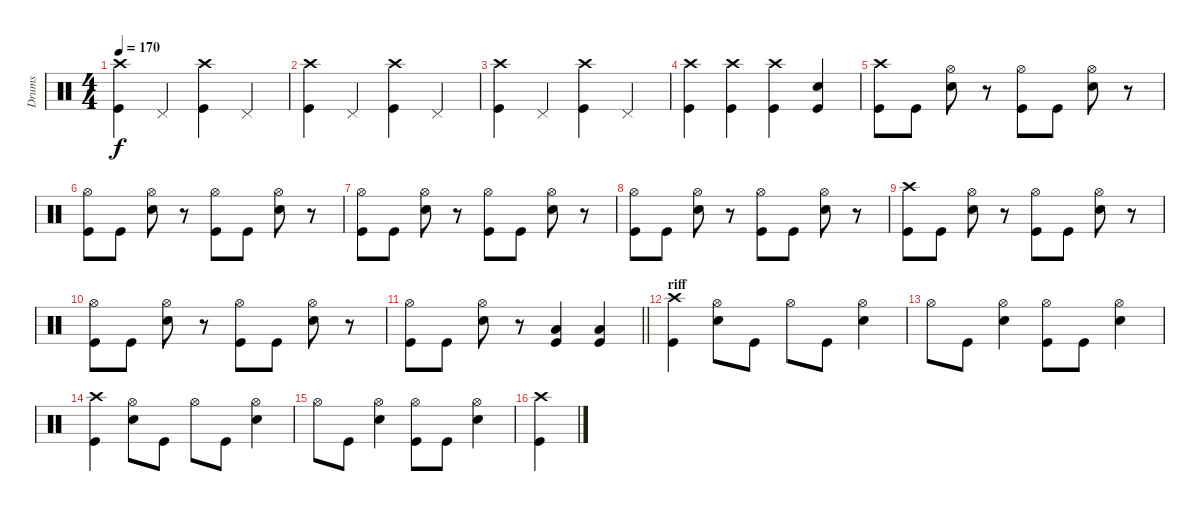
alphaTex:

\track ("Drums" "Drums") {instrument percussion}
\staff {score}
\articulation defaults
\ts (4 4)
\tempo 170
\clef neutral
\ks c
("Crash high (hit)" "Kick (hit)").4{dy f} "Pedal Hi-Hat (hit)".4 ("Crash high (hit)" "Kick (hit)").4 "Pedal Hi-Hat (hit)".4 |
("Crash high (hit)" "Kick (hit)").4 "Pedal Hi-Hat (hit)".4 ("Crash high (hit)" "Kick (hit)").4 "Pedal Hi-Hat (hit)".4 |
("Crash high (hit)" "Kick (hit)").4 "Pedal Hi-Hat (hit)".4 ("Crash high (hit)" "Kick (hit)").4 "Pedal Hi-Hat (hit)".4 |
("Crash high (hit)" "Kick (hit)").4 ("Crash high (hit)" "Kick (hit)").4 ("Crash high (hit)" "Kick (hit)").4 ("Snare (hit) 2" "Kick (hit)").4 |
("Crash high (hit)" "Kick (hit)").8 "Kick (hit)".8 ("Snare (hit) 2" "Hi-Hat (open)").8 r.8 ("Hi-Hat (open)" "Kick (hit)").8 "Kick (hit)".8 ("Snare (hit) 2" "Hi-Hat (open)").8 r.8 |
("Hi-Hat (open)" "Kick (hit)").8 "Kick (hit)".8 ("Snare (hit) 2" "Hi-Hat (open)").8 r.8 ("Hi-Hat (open)" "Kick (hit)").8 "Kick (hit)".8 ("Snare (hit) 2" "Hi-Hat (open)").8 r.8 |
("Hi-Hat (open)" "Kick (hit)").8 "Kick (hit)".8 ("Snare (hit) 2" "Hi-Hat (open)").8 r.8 ("Hi-Hat (open)" "Kick (hit)").8 "Kick (hit)".8 ("Snare (hit) 2" "Hi-Hat (open)").8 r.8 |
("Hi-Hat (open)" "Kick (hit)").8 "Kick (hit)".8 ("Snare (hit) 2" "Hi-Hat (open)").8 r.8 ("Hi-Hat (open)" "Kick (hit)").8 "Kick (hit)".8 ("Snare (hit) 2" "Hi-Hat (open)").8 r.8 |
("Crash high (hit)" "Kick (hit)").8 "Kick (hit)".8 ("Snare (hit) 2" "Hi-Hat (open)").8 r.8 ("Hi-Hat (open)" "Kick (hit)").8 "Kick (hit)".8 ("Snare (hit) 2" "Hi-Hat (open)").8 r.8 |
("Hi-Hat (open)" "Kick (hit)").8 "Kick (hit)".8 ("Snare (hit) 2" "Hi-Hat (open)").8 r.8 ("Hi-Hat (open)" "Kick (hit)").8 "Kick (hit)".8 ("Snare (hit) 2" "Hi-Hat (open)").8 r.8 |
\barLineRight lightlight
("Hi-Hat (open)" "Kick (hit)").8 "Kick (hit)".8 ("Snare (hit) 2" "Hi-Hat (open)").8 r.8 ("Low Tom (hit)" "Kick (hit)").4 ("Low Tom (hit)" "Kick (hit)").4 |
\section ("" "riff")
("Crash high (hit)" "Kick (hit)").4 ("Snare (hit) 2" "Hi-Hat (open)").8 "Kick (hit)".8 "Hi-Hat (open)".8 "Kick (hit)".8 ("Snare (hit) 2" "Hi-Hat (open)").4 |
"Hi-Hat (open)".8 "Kick (hit)".8 ("Snare (hit) 2" "Hi-Hat (open)").4 ("Hi-Hat (open)" "Kick (hit)").8 "Kick (hit)".8 ("Snare (hit) 2" "Hi-Hat (open)").4 |
("Crash high (hit)" "Kick (hit)").4 ("Snare (hit) 2" "Hi-Hat (open)").8 "Kick (hit)".8 "Hi-Hat (open)".8 "Kick (hit)".8 ("Snare (hit) 2" "Hi-Hat (open)").4 |
"Hi-Hat (open)".8 "Kick (hit)".8 ("Snare (hit) 2" "Hi-Hat (open)").4 ("Hi-Hat (open)" "Kick (hit)").8 "Kick (hit)".8 ("Snare (hit) 2" "Hi-Hat (open)").4 |
("Crash high (hit)" "Kick (hit)").4
